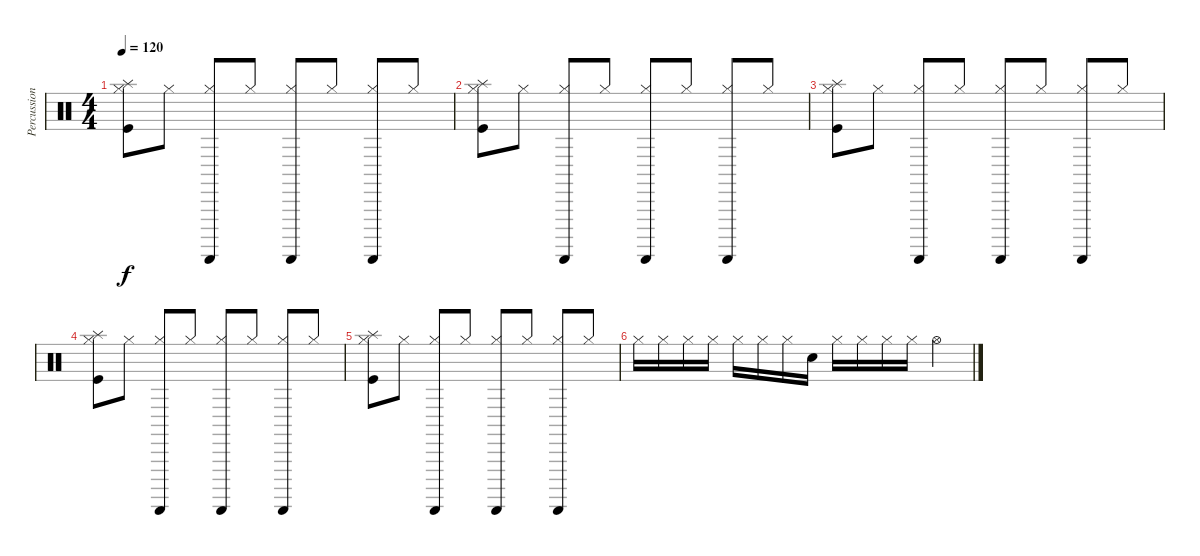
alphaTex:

\track ("Percussion" "Percussion") {instrument percussion}
\staff {score}
\articulation defaults
\ts (4 4)
\tempo 120
\clef neutral
\ks c
("Splash (hit)" "Kick (hit)" "Hi-Hat (closed)").8{dy f} "Hi-Hat (closed)".8 ("Guiro (scrap-return)" "Hi-Hat (closed)").8 "Hi-Hat (closed)".8 ("Guiro (scrap-return)" "Hi-Hat (closed)").8 "Hi-Hat (closed)".8 ("Guiro (scrap-return)" "Hi-Hat (closed)").8 "Hi-Hat (closed)".8 |
("Splash (hit)" "Kick (hit)" "Hi-Hat (closed)").8 "Hi-Hat (closed)".8 ("Guiro (scrap-return)" "Hi-Hat (closed)").8 "Hi-Hat (closed)".8 ("Guiro (scrap-return)" "Hi-Hat (closed)").8 "Hi-Hat (closed)".8 ("Guiro (scrap-return)" "Hi-Hat (closed)").8 "Hi-Hat (closed)".8 |
("Splash (hit)" "Kick (hit)" "Hi-Hat (closed)").8 "Hi-Hat (closed)".8 ("Guiro (scrap-return)" "Hi-Hat (closed)").8 "Hi-Hat (closed)".8 ("Guiro (scrap-return)" "Hi-Hat (closed)").8 "Hi-Hat (closed)".8 ("Guiro (scrap-return)" "Hi-Hat (closed)").8 "Hi-Hat (closed)".8 |
("Splash (hit)" "Kick (hit)" "Hi-Hat (closed)").8 "Hi-Hat (closed)".8 ("Guiro (scrap-return)" "Hi-Hat (closed)").8 "Hi-Hat (closed)".8 ("Guiro (scrap-return)" "Hi-Hat (closed)").8 "Hi-Hat (closed)".8 ("Guiro (scrap-return)" "Hi-Hat (closed)").8 "Hi-Hat (closed)".8 |
("Splash (hit)" "Kick (hit)" "Hi-Hat (closed)").8 "Hi-Hat (closed)".8 ("Guiro (scrap-return)" "Hi-Hat (closed)").8 "Hi-Hat (closed)".8 ("Guiro (scrap-return)" "Hi-Hat (closed)").8 "Hi-Hat (closed)".8 ("Guiro (scrap-return)" "Hi-Hat (closed)").8 "Hi-Hat (closed)".8 |
"Hi-Hat (closed)".16 "Hi-Hat (closed)".16 "Hi-Hat (closed)".16 "Hi-Hat (closed)".16 "Hi-Hat (closed)".16 "Hi-Hat (closed)".16 "Hi-Hat (closed)".16 "Snare (hit)".16 "Hi-Hat (closed)".16 "Hi-Hat (closed)".16 "Hi-Hat (closed)".16 "Hi-Hat (closed)".16 "Hi-Hat (open)".4
